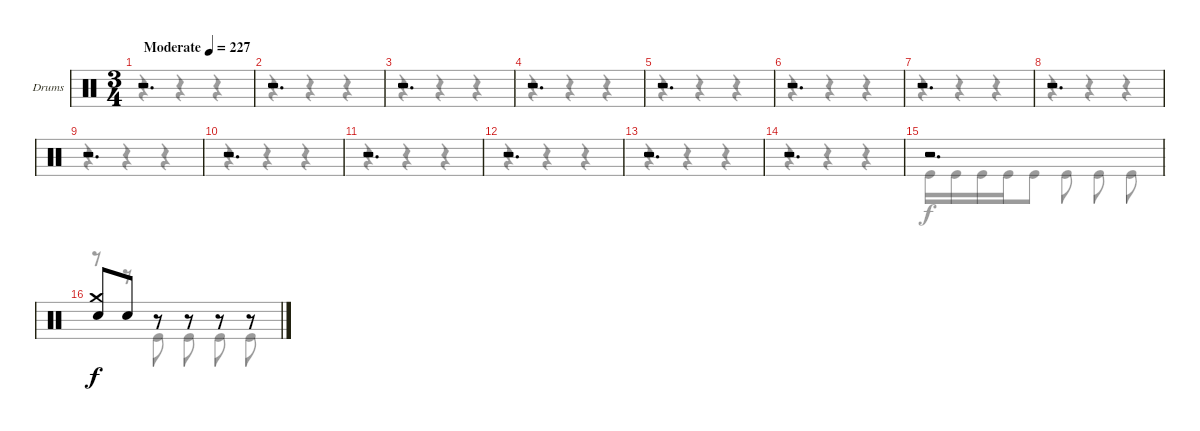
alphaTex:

\bracketExtendMode groupsimilarinstruments
\firstSystemTrackNameOrientation horizontal
\otherSystemsTrackNameOrientation horizontal
\track ("Drumkit" "Drums") {instrument percussion}
\staff {score}
\articulation defaults
\voice
\ts (3 4)
\beaming (8 3 1 1 1)
\tempo (227 "Moderate")
\clef neutral
\ks c
r.2{d dy f} |
r.2{d} |
r.2{d} |
r.2{d} |
r.2{d} |
r.2{d} |
r.2{d} |
r.2{d} |
r.2{d} |
r.2{d} |
r.2{d} |
r.2{d} |
r.2{d} |
r.2{d} |
r.2{d} |
("Crash medium (hit)" "Snare (hit) 2").8 "Snare (hit) 2".8 r.8 r.8 r.8 r.8
\voice
\clef neutral
\ottava regular
\simile none
\ks c
r.4{dy f} r.4 r.4 |
r.4 r.4 r.4 |
r.4 r.4 r.4 |
r.4 r.4 r.4 |
r.4 r.4 r.4 |
r.4 r.4 r.4 |
r.4 r.4 r.4 |
r.4 r.4 r.4 |
r.4 r.4 r.4 |
r.4 r.4 r.4 |
r.4 r.4 r.4 |
r.4 r.4 r.4 |
r.4 r.4 r.4 |
r.4 r.4 r.4 |
"Kick (hit)".16 "Kick (hit)".16 "Kick (hit)".16 "Kick (hit)".16 "Kick (hit)".8 "Kick (hit)".8 "Kick (hit)".8 "Kick (hit)".8 |
r.8 r.8 "Kick (hit)".8 "Kick (hit)".8 "Kick (hit)".8 "Kick (hit)".8
